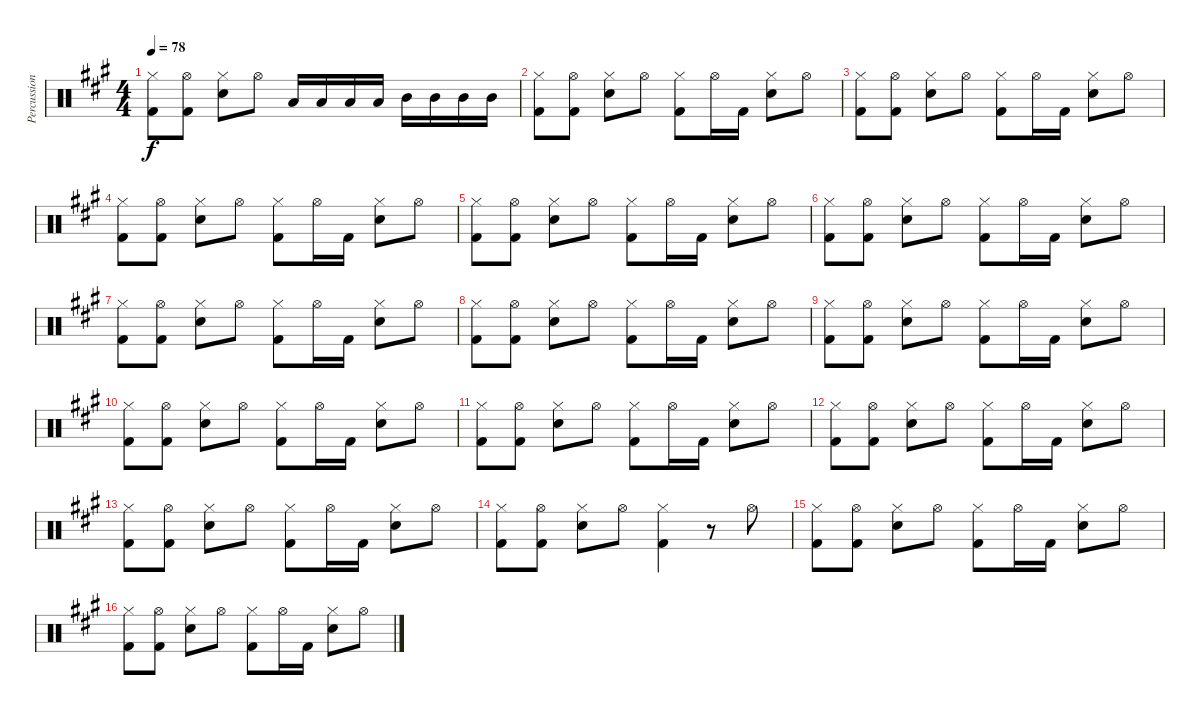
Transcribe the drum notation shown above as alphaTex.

\track ("Percussions" "Percussion") {instrument percussion}
\staff {score}
\articulation defaults
\ts (4 4)
\tempo 78
\clef neutral
\ks a
("Hi-Hat (closed)" "Kick (hit) 2").8{dy f} ("Hi-Hat (open)" "Kick (hit) 2").8 ("Hi-Hat (closed)" "Snare (hit) 2").8 "Hi-Hat (open)".8 "Low Floor Tom (hit)".16 "Low Floor Tom (hit)".16 "Low Floor Tom (hit)".16 "Low Floor Tom (hit)".16 "Mid Tom (hit)".16 "Mid Tom (hit)".16 "Mid Tom (hit)".16 "Mid Tom (hit)".16 |
("Hi-Hat (closed)" "Kick (hit) 2").8 ("Hi-Hat (open)" "Kick (hit) 2").8 ("Hi-Hat (closed)" "Snare (hit) 2").8 "Hi-Hat (open)".8 ("Hi-Hat (closed)" "Kick (hit) 2").8 "Hi-Hat (open)".16 "Kick (hit) 2".16 ("Hi-Hat (closed)" "Snare (hit) 2").8 "Hi-Hat (open)".8 |
("Hi-Hat (closed)" "Kick (hit) 2").8 ("Hi-Hat (open)" "Kick (hit) 2").8 ("Hi-Hat (closed)" "Snare (hit) 2").8 "Hi-Hat (open)".8 ("Hi-Hat (closed)" "Kick (hit) 2").8 "Hi-Hat (open)".16 "Kick (hit) 2".16 ("Hi-Hat (closed)" "Snare (hit) 2").8 "Hi-Hat (open)".8 |
("Hi-Hat (closed)" "Kick (hit) 2").8 ("Hi-Hat (open)" "Kick (hit) 2").8 ("Hi-Hat (closed)" "Snare (hit) 2").8 "Hi-Hat (open)".8 ("Hi-Hat (closed)" "Kick (hit) 2").8 "Hi-Hat (open)".16 "Kick (hit) 2".16 ("Hi-Hat (closed)" "Snare (hit) 2").8 "Hi-Hat (open)".8 |
("Hi-Hat (closed)" "Kick (hit) 2").8 ("Hi-Hat (open)" "Kick (hit) 2").8 ("Hi-Hat (closed)" "Snare (hit) 2").8 "Hi-Hat (open)".8 ("Hi-Hat (closed)" "Kick (hit) 2").8 "Hi-Hat (open)".16 "Kick (hit) 2".16 ("Hi-Hat (closed)" "Snare (hit) 2").8 "Hi-Hat (open)".8 |
("Hi-Hat (closed)" "Kick (hit) 2").8 ("Hi-Hat (open)" "Kick (hit) 2").8 ("Hi-Hat (closed)" "Snare (hit) 2").8 "Hi-Hat (open)".8 ("Hi-Hat (closed)" "Kick (hit) 2").8 "Hi-Hat (open)".16 "Kick (hit) 2".16 ("Hi-Hat (closed)" "Snare (hit) 2").8 "Hi-Hat (open)".8 |
("Hi-Hat (closed)" "Kick (hit) 2").8 ("Hi-Hat (open)" "Kick (hit) 2").8 ("Hi-Hat (closed)" "Snare (hit) 2").8 "Hi-Hat (open)".8 ("Hi-Hat (closed)" "Kick (hit) 2").8 "Hi-Hat (open)".16 "Kick (hit) 2".16 ("Hi-Hat (closed)" "Snare (hit) 2").8 "Hi-Hat (open)".8 |
("Hi-Hat (closed)" "Kick (hit) 2").8 ("Hi-Hat (open)" "Kick (hit) 2").8 ("Hi-Hat (closed)" "Snare (hit) 2").8 "Hi-Hat (open)".8 ("Hi-Hat (closed)" "Kick (hit) 2").8 "Hi-Hat (open)".16 "Kick (hit) 2".16 ("Hi-Hat (closed)" "Snare (hit) 2").8 "Hi-Hat (open)".8 |
("Hi-Hat (closed)" "Kick (hit) 2").8 ("Hi-Hat (open)" "Kick (hit) 2").8 ("Hi-Hat (closed)" "Snare (hit) 2").8 "Hi-Hat (open)".8 ("Hi-Hat (closed)" "Kick (hit) 2").8 "Hi-Hat (open)".16 "Kick (hit) 2".16 ("Hi-Hat (closed)" "Snare (hit) 2").8 "Hi-Hat (open)".8 |
("Hi-Hat (closed)" "Kick (hit) 2").8 ("Hi-Hat (open)" "Kick (hit) 2").8 ("Hi-Hat (closed)" "Snare (hit) 2").8 "Hi-Hat (open)".8 ("Hi-Hat (closed)" "Kick (hit) 2").8 "Hi-Hat (open)".16 "Kick (hit) 2".16 ("Hi-Hat (closed)" "Snare (hit) 2").8 "Hi-Hat (open)".8 |
("Hi-Hat (closed)" "Kick (hit) 2").8 ("Hi-Hat (open)" "Kick (hit) 2").8 ("Hi-Hat (closed)" "Snare (hit) 2").8 "Hi-Hat (open)".8 ("Hi-Hat (closed)" "Kick (hit) 2").8 "Hi-Hat (open)".16 "Kick (hit) 2".16 ("Hi-Hat (closed)" "Snare (hit) 2").8 "Hi-Hat (open)".8 |
("Hi-Hat (closed)" "Kick (hit) 2").8 ("Hi-Hat (open)" "Kick (hit) 2").8 ("Hi-Hat (closed)" "Snare (hit) 2").8 "Hi-Hat (open)".8 ("Hi-Hat (closed)" "Kick (hit) 2").8 "Hi-Hat (open)".16 "Kick (hit) 2".16 ("Hi-Hat (closed)" "Snare (hit) 2").8 "Hi-Hat (open)".8 |
("Hi-Hat (closed)" "Kick (hit) 2").8 ("Hi-Hat (open)" "Kick (hit) 2").8 ("Hi-Hat (closed)" "Snare (hit) 2").8 "Hi-Hat (open)".8 ("Hi-Hat (closed)" "Kick (hit) 2").8 "Hi-Hat (open)".16 "Kick (hit) 2".16 ("Hi-Hat (closed)" "Snare (hit) 2").8 "Hi-Hat (open)".8 |
("Hi-Hat (closed)" "Kick (hit) 2").8 ("Hi-Hat (open)" "Kick (hit) 2").8 ("Hi-Hat (closed)" "Snare (hit) 2").8 "Hi-Hat (open)".8 ("Hi-Hat (closed)" "Kick (hit) 2").4 r.8 "Hi-Hat (open)".8 |
("Hi-Hat (closed)" "Kick (hit) 2").8 ("Hi-Hat (open)" "Kick (hit) 2").8 ("Hi-Hat (closed)" "Snare (hit) 2").8 "Hi-Hat (open)".8 ("Hi-Hat (closed)" "Kick (hit) 2").8 "Hi-Hat (open)".16 "Kick (hit) 2".16 ("Hi-Hat (closed)" "Snare (hit) 2").8 "Hi-Hat (open)".8 |
("Hi-Hat (closed)" "Kick (hit) 2").8 ("Hi-Hat (open)" "Kick (hit) 2").8 ("Hi-Hat (closed)" "Snare (hit) 2").8 "Hi-Hat (open)".8 ("Hi-Hat (closed)" "Kick (hit) 2").8 "Hi-Hat (open)".16 "Kick (hit) 2".16 ("Hi-Hat (closed)" "Snare (hit) 2").8 "Hi-Hat (open)".8
